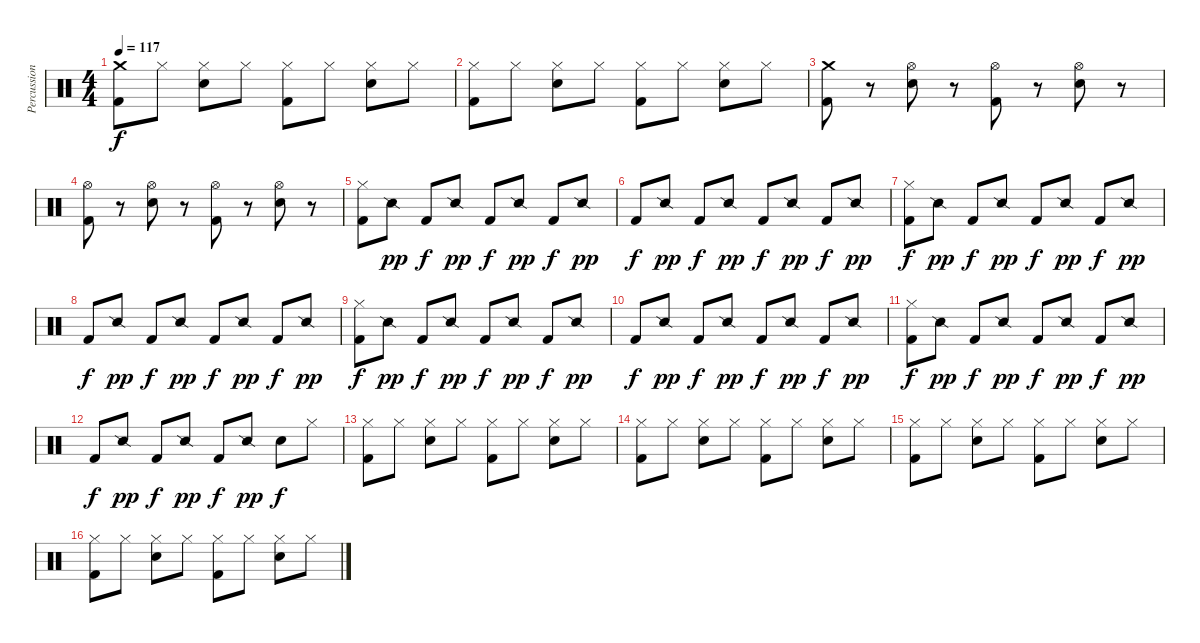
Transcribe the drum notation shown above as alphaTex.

\track ("Percussions" "Percussion") {instrument percussion}
\staff {score}
\articulation defaults
\ts (4 4)
\tempo 117
\clef neutral
\ks c
("Crash medium (hit)" "Kick (hit) 2").8{dy f} "Hi-Hat (closed)".8 ("Hi-Hat (closed)" "Electric Snare (hit)").8 "Hi-Hat (closed)".8 ("Hi-Hat (closed)" "Kick (hit) 2").8 "Hi-Hat (closed)".8 ("Hi-Hat (closed)" "Electric Snare (hit)").8 "Hi-Hat (closed)".8 |
("Hi-Hat (closed)" "Kick (hit) 2").8 "Hi-Hat (closed)".8 ("Hi-Hat (closed)" "Electric Snare (hit)").8 "Hi-Hat (closed)".8 ("Hi-Hat (closed)" "Kick (hit) 2").8 "Hi-Hat (closed)".8 ("Hi-Hat (closed)" "Electric Snare (hit)").8 "Hi-Hat (closed)".8 |
("Crash medium (hit)" "Kick (hit) 2").8 r.8 ("Hi-Hat (open)" "Electric Snare (hit)").8 r.8 ("Hi-Hat (open)" "Kick (hit) 2").8 r.8 ("Hi-Hat (open)" "Electric Snare (hit)").8 r.8 |
("Hi-Hat (open)" "Kick (hit) 2").8 r.8 ("Hi-Hat (open)" "Electric Snare (hit)").8 r.8 ("Hi-Hat (open)" "Kick (hit) 2").8 r.8 ("Hi-Hat (open)" "Electric Snare (hit)").8 r.8 |
("Hi-Hat (closed)" "Kick (hit) 2").8 "Snare (side stick) 2".8{dy pp} "Kick (hit) 2".8{dy f} "Snare (side stick) 2".8{dy pp} "Kick (hit) 2".8{dy f} "Snare (side stick) 2".8{dy pp} "Kick (hit) 2".8{dy f} "Snare (side stick) 2".8{dy pp} |
"Kick (hit) 2".8{dy f} "Snare (side stick) 2".8{dy pp} "Kick (hit) 2".8{dy f} "Snare (side stick) 2".8{dy pp} "Kick (hit) 2".8{dy f} "Snare (side stick) 2".8{dy pp} "Kick (hit) 2".8{dy f} "Snare (side stick) 2".8{dy pp} |
("Hi-Hat (closed)" "Kick (hit) 2").8{dy f} "Snare (side stick) 2".8{dy pp} "Kick (hit) 2".8{dy f} "Snare (side stick) 2".8{dy pp} "Kick (hit) 2".8{dy f} "Snare (side stick) 2".8{dy pp} "Kick (hit) 2".8{dy f} "Snare (side stick) 2".8{dy pp} |
"Kick (hit) 2".8{dy f} "Snare (side stick) 2".8{dy pp} "Kick (hit) 2".8{dy f} "Snare (side stick) 2".8{dy pp} "Kick (hit) 2".8{dy f} "Snare (side stick) 2".8{dy pp} "Kick (hit) 2".8{dy f} "Snare (side stick) 2".8{dy pp} |
("Hi-Hat (closed)" "Kick (hit) 2").8{dy f} "Snare (side stick) 2".8{dy pp} "Kick (hit) 2".8{dy f} "Snare (side stick) 2".8{dy pp} "Kick (hit) 2".8{dy f} "Snare (side stick) 2".8{dy pp} "Kick (hit) 2".8{dy f} "Snare (side stick) 2".8{dy pp} |
"Kick (hit) 2".8{dy f} "Snare (side stick) 2".8{dy pp} "Kick (hit) 2".8{dy f} "Snare (side stick) 2".8{dy pp} "Kick (hit) 2".8{dy f} "Snare (side stick) 2".8{dy pp} "Kick (hit) 2".8{dy f} "Snare (side stick) 2".8{dy pp} |
("Hi-Hat (closed)" "Kick (hit) 2").8{dy f} "Snare (side stick) 2".8{dy pp} "Kick (hit) 2".8{dy f} "Snare (side stick) 2".8{dy pp} "Kick (hit) 2".8{dy f} "Snare (side stick) 2".8{dy pp} "Kick (hit) 2".8{dy f} "Snare (side stick) 2".8{dy pp} |
"Kick (hit) 2".8{dy f} "Snare (side stick) 2".8{dy pp} "Kick (hit) 2".8{dy f} "Snare (side stick) 2".8{dy pp} "Kick (hit) 2".8{dy f} "Snare (side stick) 2".8{dy pp} "Electric Snare (hit)".8{dy f} "Hi-Hat (closed)".8 |
("Hi-Hat (closed)" "Kick (hit) 2").8 "Hi-Hat (closed)".8 ("Hi-Hat (closed)" "Electric Snare (hit)").8 "Hi-Hat (closed)".8 ("Hi-Hat (closed)" "Kick (hit) 2").8 "Hi-Hat (closed)".8 ("Hi-Hat (closed)" "Electric Snare (hit)").8 "Hi-Hat (closed)".8 |
("Hi-Hat (closed)" "Kick (hit) 2").8 "Hi-Hat (closed)".8 ("Hi-Hat (closed)" "Electric Snare (hit)").8 "Hi-Hat (closed)".8 ("Hi-Hat (closed)" "Kick (hit) 2").8 "Hi-Hat (closed)".8 ("Hi-Hat (closed)" "Electric Snare (hit)").8 "Hi-Hat (closed)".8 |
("Hi-Hat (closed)" "Kick (hit) 2").8 "Hi-Hat (closed)".8 ("Hi-Hat (closed)" "Electric Snare (hit)").8 "Hi-Hat (closed)".8 ("Hi-Hat (closed)" "Kick (hit) 2").8 "Hi-Hat (closed)".8 ("Hi-Hat (closed)" "Electric Snare (hit)").8 "Hi-Hat (closed)".8 |
("Hi-Hat (closed)" "Kick (hit) 2").8 "Hi-Hat (closed)".8 ("Hi-Hat (closed)" "Electric Snare (hit)").8 "Hi-Hat (closed)".8 ("Hi-Hat (closed)" "Kick (hit) 2").8 "Hi-Hat (closed)".8 ("Hi-Hat (closed)" "Electric Snare (hit)").8 "Hi-Hat (closed)".8
